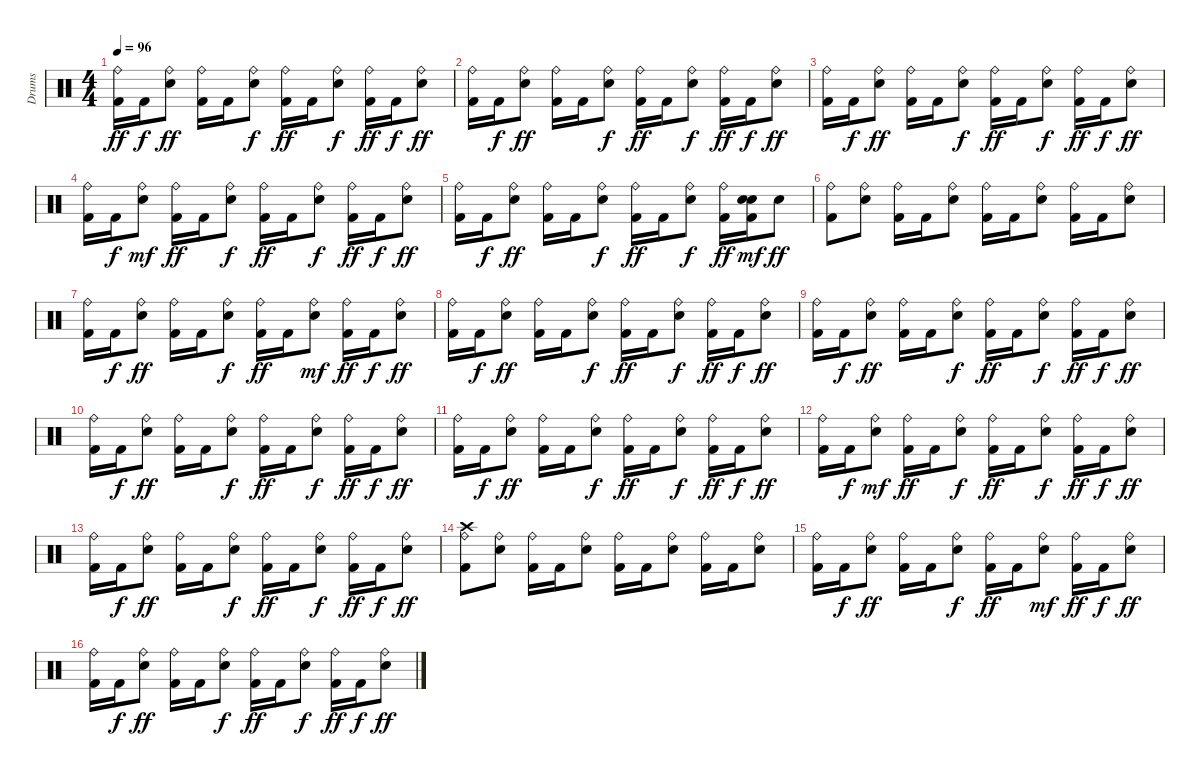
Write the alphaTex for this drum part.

\track ("Drums" "Drums") {instrument percussion}
\staff {score}
\articulation defaults
\ts (4 4)
\tempo 96
\clef neutral
\ks c
("Ride (bell)" "Kick (hit) 2").16{dy ff} "Kick (hit) 2".16{dy f} ("Electric Snare (hit)" "Ride (bell)").8{dy ff} ("Ride (bell)" "Kick (hit) 2").16 "Kick (hit) 2".16 ("Electric Snare (hit)" "Ride (bell)").8{dy f} ("Ride (bell)" "Kick (hit) 2").16{dy ff} "Kick (hit) 2".16 ("Electric Snare (hit)" "Ride (bell)").8{dy f} ("Ride (bell)" "Kick (hit) 2").16{dy ff} "Kick (hit) 2".16{dy f} ("Electric Snare (hit)" "Ride (bell)").8{dy ff} |
("Ride (bell)" "Kick (hit) 2").16 "Kick (hit) 2".16{dy f} ("Electric Snare (hit)" "Ride (bell)").8{dy ff} ("Ride (bell)" "Kick (hit) 2").16 "Kick (hit) 2".16 ("Electric Snare (hit)" "Ride (bell)").8{dy f} ("Ride (bell)" "Kick (hit) 2").16{dy ff} "Kick (hit) 2".16 ("Electric Snare (hit)" "Ride (bell)").8{dy f} ("Ride (bell)" "Kick (hit) 2").16{dy ff} "Kick (hit) 2".16{dy f} ("Electric Snare (hit)" "Ride (bell)").8{dy ff} |
("Ride (bell)" "Kick (hit) 2").16 "Kick (hit) 2".16{dy f} ("Electric Snare (hit)" "Ride (bell)").8{dy ff} ("Ride (bell)" "Kick (hit) 2").16 "Kick (hit) 2".16 ("Electric Snare (hit)" "Ride (bell)").8{dy f} ("Ride (bell)" "Kick (hit) 2").16{dy ff} "Kick (hit) 2".16 ("Electric Snare (hit)" "Ride (bell)").8{dy f} ("Ride (bell)" "Kick (hit) 2").16{dy ff} "Kick (hit) 2".16{dy f} ("Electric Snare (hit)" "Ride (bell)").8{dy ff} |
("Ride (bell)" "Kick (hit) 2").16 "Kick (hit) 2".16{dy f} ("Electric Snare (hit)" "Ride (bell)").8{dy mf} ("Ride (bell)" "Kick (hit) 2").16{dy ff} "Kick (hit) 2".16 ("Electric Snare (hit)" "Ride (bell)").8{dy f} ("Ride (bell)" "Kick (hit) 2").16{dy ff} "Kick (hit) 2".16 ("Electric Snare (hit)" "Ride (bell)").8{dy f} ("Ride (bell)" "Kick (hit) 2").16{dy ff} "Kick (hit) 2".16{dy f} ("Electric Snare (hit)" "Ride (bell)").8{dy ff} |
("Ride (bell)" "Kick (hit) 2").16 "Kick (hit) 2".16{dy f} ("Electric Snare (hit)" "Ride (bell)").8{dy ff} ("Ride (bell)" "Kick (hit) 2").16 "Kick (hit) 2".16 ("Electric Snare (hit)" "Ride (bell)").8{dy f} ("Ride (bell)" "Kick (hit) 2").16{dy ff} "Kick (hit) 2".16 ("Electric Snare (hit)" "Ride (bell)").8{dy f} ("Ride (bell)" "Kick (hit) 2").16{dy ff} ("Kick (hit) 2" "Electric Snare (hit)" "Electric Snare (hit)").16{dy mf} "Electric Snare (hit)".8{dy ff} |
("Kick (hit) 2" "Ride (bell)").8 ("Electric Snare (hit)" "Ride (bell)").8 ("Ride (bell)" "Kick (hit) 2").16 "Kick (hit) 2".16 ("Electric Snare (hit)" "Ride (bell)").8 ("Ride (bell)" "Kick (hit) 2").16 "Kick (hit) 2".16 ("Electric Snare (hit)" "Ride (bell)").8 ("Ride (bell)" "Kick (hit) 2").16 "Kick (hit) 2".16 ("Electric Snare (hit)" "Ride (bell)").8 |
("Ride (bell)" "Kick (hit) 2").16 "Kick (hit) 2".16{dy f} ("Electric Snare (hit)" "Ride (bell)").8{dy ff} ("Ride (bell)" "Kick (hit) 2").16 "Kick (hit) 2".16 ("Electric Snare (hit)" "Ride (bell)").8{dy f} ("Ride (bell)" "Kick (hit) 2").16{dy ff} "Kick (hit) 2".16 ("Electric Snare (hit)" "Ride (bell)").8{dy mf} ("Ride (bell)" "Kick (hit) 2").16{dy ff} "Kick (hit) 2".16{dy f} ("Electric Snare (hit)" "Ride (bell)").8{dy ff} |
("Ride (bell)" "Kick (hit) 2").16 "Kick (hit) 2".16{dy f} ("Electric Snare (hit)" "Ride (bell)").8{dy ff} ("Ride (bell)" "Kick (hit) 2").16 "Kick (hit) 2".16 ("Electric Snare (hit)" "Ride (bell)").8{dy f} ("Ride (bell)" "Kick (hit) 2").16{dy ff} "Kick (hit) 2".16 ("Electric Snare (hit)" "Ride (bell)").8{dy f} ("Ride (bell)" "Kick (hit) 2").16{dy ff} "Kick (hit) 2".16{dy f} ("Electric Snare (hit)" "Ride (bell)").8{dy ff} |
("Ride (bell)" "Kick (hit) 2").16 "Kick (hit) 2".16{dy f} ("Electric Snare (hit)" "Ride (bell)").8{dy ff} ("Ride (bell)" "Kick (hit) 2").16 "Kick (hit) 2".16 ("Electric Snare (hit)" "Ride (bell)").8{dy f} ("Ride (bell)" "Kick (hit) 2").16{dy ff} "Kick (hit) 2".16 ("Electric Snare (hit)" "Ride (bell)").8{dy f} ("Ride (bell)" "Kick (hit) 2").16{dy ff} "Kick (hit) 2".16{dy f} ("Electric Snare (hit)" "Ride (bell)").8{dy ff} |
("Ride (bell)" "Kick (hit) 2").16 "Kick (hit) 2".16{dy f} ("Electric Snare (hit)" "Ride (bell)").8{dy ff} ("Ride (bell)" "Kick (hit) 2").16 "Kick (hit) 2".16 ("Electric Snare (hit)" "Ride (bell)").8{dy f} ("Ride (bell)" "Kick (hit) 2").16{dy ff} "Kick (hit) 2".16 ("Electric Snare (hit)" "Ride (bell)").8{dy f} ("Ride (bell)" "Kick (hit) 2").16{dy ff} "Kick (hit) 2".16{dy f} ("Electric Snare (hit)" "Ride (bell)").8{dy ff} |
("Ride (bell)" "Kick (hit) 2").16 "Kick (hit) 2".16{dy f} ("Electric Snare (hit)" "Ride (bell)").8{dy ff} ("Ride (bell)" "Kick (hit) 2").16 "Kick (hit) 2".16 ("Electric Snare (hit)" "Ride (bell)").8{dy f} ("Ride (bell)" "Kick (hit) 2").16{dy ff} "Kick (hit) 2".16 ("Electric Snare (hit)" "Ride (bell)").8{dy f} ("Ride (bell)" "Kick (hit) 2").16{dy ff} "Kick (hit) 2".16{dy f} ("Electric Snare (hit)" "Ride (bell)").8{dy ff} |
("Ride (bell)" "Kick (hit) 2").16 "Kick (hit) 2".16{dy f} ("Electric Snare (hit)" "Ride (bell)").8{dy mf} ("Ride (bell)" "Kick (hit) 2").16{dy ff} "Kick (hit) 2".16 ("Electric Snare (hit)" "Ride (bell)").8{dy f} ("Ride (bell)" "Kick (hit) 2").16{dy ff} "Kick (hit) 2".16 ("Electric Snare (hit)" "Ride (bell)").8{dy f} ("Ride (bell)" "Kick (hit) 2").16{dy ff} "Kick (hit) 2".16{dy f} ("Electric Snare (hit)" "Ride (bell)").8{dy ff} |
("Ride (bell)" "Kick (hit) 2").16 "Kick (hit) 2".16{dy f} ("Electric Snare (hit)" "Ride (bell)").8{dy ff} ("Ride (bell)" "Kick (hit) 2").16 "Kick (hit) 2".16 ("Electric Snare (hit)" "Ride (bell)").8{dy f} ("Ride (bell)" "Kick (hit) 2").16{dy ff} "Kick (hit) 2".16 ("Electric Snare (hit)" "Ride (bell)").8{dy f} ("Ride (bell)" "Kick (hit) 2").16{dy ff} "Kick (hit) 2".16{dy f} ("Electric Snare (hit)" "Ride (bell)").8{dy ff} |
("Kick (hit) 2" "Ride (bell)" "Crash high (hit)").8 ("Electric Snare (hit)" "Ride (bell)").8 ("Ride (bell)" "Kick (hit) 2").16{volume 16} "Kick (hit) 2".16 ("Electric Snare (hit)" "Ride (bell)").8{volume 16} ("Ride (bell)" "Kick (hit) 2").16{volume 15} "Kick (hit) 2".16{volume 15} ("Electric Snare (hit)" "Ride (bell)").8{volume 15} ("Ride (bell)" "Kick (hit) 2").16{volume 14} "Kick (hit) 2".16{volume 14} ("Electric Snare (hit)" "Ride (bell)").8{volume 14} |
("Ride (bell)" "Kick (hit) 2").16{volume 14} "Kick (hit) 2".16{dy f volume 13} ("Electric Snare (hit)" "Ride (bell)").8{dy ff volume 13} ("Ride (bell)" "Kick (hit) 2").16{volume 13} "Kick (hit) 2".16{volume 12} ("Electric Snare (hit)" "Ride (bell)").8{dy f volume 12} ("Ride (bell)" "Kick (hit) 2").16{dy ff volume 12} "Kick (hit) 2".16 ("Electric Snare (hit)" "Ride (bell)").8{dy mf volume 12} ("Ride (bell)" "Kick (hit) 2").16{dy ff volume 11} "Kick (hit) 2".16{dy f} ("Electric Snare (hit)" "Ride (bell)").8{dy ff volume 11} |
("Ride (bell)" "Kick (hit) 2").16{volume 11} "Kick (hit) 2".16{dy f volume 11} ("Electric Snare (hit)" "Ride (bell)").8{dy ff volume 10} ("Ride (bell)" "Kick (hit) 2").16{volume 10} "Kick (hit) 2".16{volume 10} ("Electric Snare (hit)" "Ride (bell)").8{dy f volume 10} ("Ride (bell)" "Kick (hit) 2").16{dy ff volume 10} "Kick (hit) 2".16{volume 9} ("Electric Snare (hit)" "Ride (bell)").8{dy f volume 9} ("Ride (bell)" "Kick (hit) 2").16{dy ff volume 9} "Kick (hit) 2".16{dy f volume 9} ("Electric Snare (hit)" "Ride (bell)").8{dy ff volume 9}
